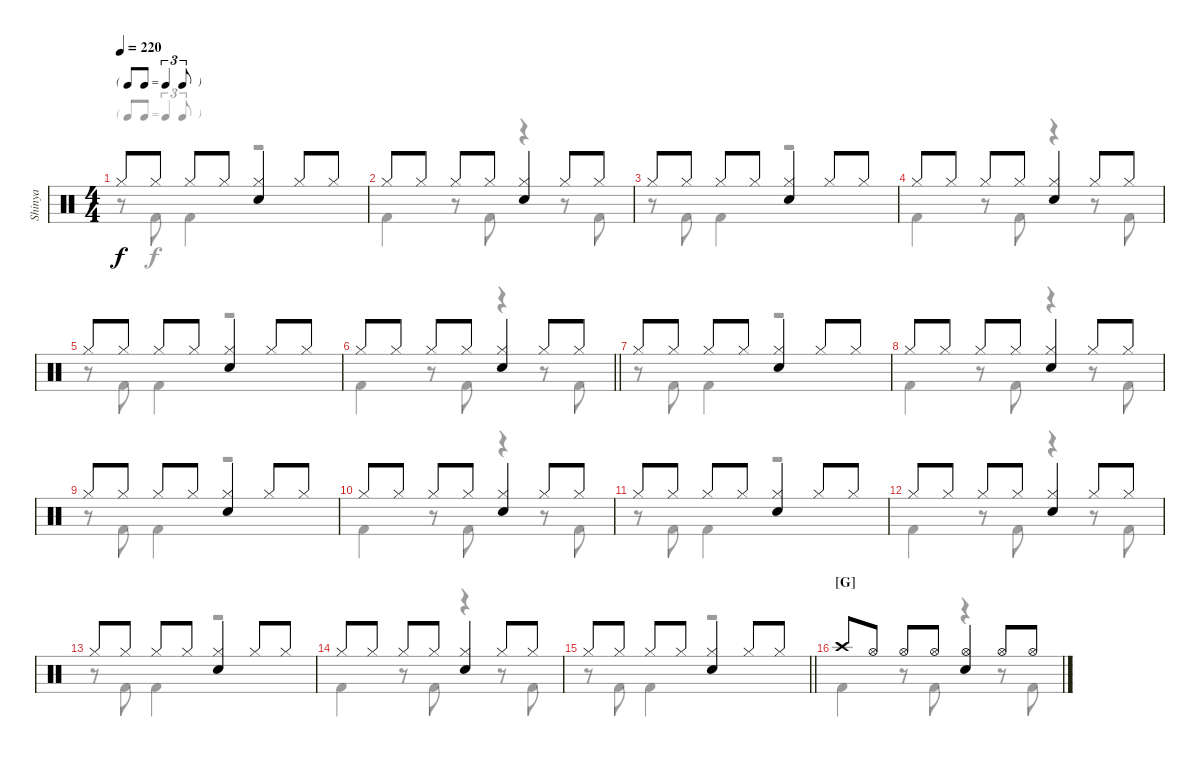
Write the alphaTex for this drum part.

\track ("Shinya" "Shinya") {instrument percussion}
\staff {score}
\articulation defaults
\voice
\ts (4 4)
\tf triplet8th
\tempo 220
\clef neutral
\ks c "Hi-Hat (closed)".8{dy f} "Hi-Hat (closed)".8 "Hi-Hat (closed)".8 "Hi-Hat (closed)".8
("Hi-Hat (closed)" "Snare (hit) 2").4 "Hi-Hat (closed)".8 "Hi-Hat (closed)".8 |
"Hi-Hat (closed)".8 "Hi-Hat (closed)".8 "Hi-Hat (closed)".8 "Hi-Hat (closed)".8 ("Hi-Hat (closed)" "Snare (hit) 2").4 "Hi-Hat (closed)".8 "Hi-Hat (closed)".8 |
"Hi-Hat (closed)".8 "Hi-Hat (closed)".8 "Hi-Hat (closed)".8 "Hi-Hat (closed)".8 ("Hi-Hat (closed)" "Snare (hit) 2").4 "Hi-Hat (closed)".8 "Hi-Hat (closed)".8 |
"Hi-Hat (closed)".8 "Hi-Hat (closed)".8 "Hi-Hat (closed)".8 "Hi-Hat (closed)".8 ("Hi-Hat (closed)" "Snare (hit) 2").4 "Hi-Hat (closed)".8 "Hi-Hat (closed)".8 |
"Hi-Hat (closed)".8 "Hi-Hat (closed)".8 "Hi-Hat (closed)".8 "Hi-Hat (closed)".8 ("Hi-Hat (closed)" "Snare (hit) 2").4 "Hi-Hat (closed)".8 "Hi-Hat (closed)".8 |
\barLineRight lightlight "Hi-Hat (closed)".8 "Hi-Hat (closed)".8 "Hi-Hat (closed)".8 "Hi-Hat (closed)".8
("Hi-Hat (closed)" "Snare (hit) 2").4 "Hi-Hat (closed)".8 "Hi-Hat (closed)".8 |
"Hi-Hat (closed)".8 "Hi-Hat (closed)".8 "Hi-Hat (closed)".8 "Hi-Hat (closed)".8 ("Hi-Hat (closed)" "Snare (hit) 2").4 "Hi-Hat (closed)".8 "Hi-Hat (closed)".8 |
"Hi-Hat (closed)".8 "Hi-Hat (closed)".8 "Hi-Hat (closed)".8 "Hi-Hat (closed)".8 ("Hi-Hat (closed)" "Snare (hit) 2").4 "Hi-Hat (closed)".8 "Hi-Hat (closed)".8 |
"Hi-Hat (closed)".8 "Hi-Hat (closed)".8 "Hi-Hat (closed)".8 "Hi-Hat (closed)".8 ("Hi-Hat (closed)" "Snare (hit) 2").4 "Hi-Hat (closed)".8 "Hi-Hat (closed)".8 |
"Hi-Hat (closed)".8 "Hi-Hat (closed)".8 "Hi-Hat (closed)".8 "Hi-Hat (closed)".8 ("Hi-Hat (closed)" "Snare (hit) 2").4 "Hi-Hat (closed)".8 "Hi-Hat (closed)".8 |
"Hi-Hat (closed)".8 "Hi-Hat (closed)".8 "Hi-Hat (closed)".8 "Hi-Hat (closed)".8 ("Hi-Hat (closed)" "Snare (hit) 2").4 "Hi-Hat (closed)".8 "Hi-Hat (closed)".8 |
"Hi-Hat (closed)".8 "Hi-Hat (closed)".8 "Hi-Hat (closed)".8 "Hi-Hat (closed)".8 ("Hi-Hat (closed)" "Snare (hit) 2").4 "Hi-Hat (closed)".8 "Hi-Hat (closed)".8 |
"Hi-Hat (closed)".8 "Hi-Hat (closed)".8 "Hi-Hat (closed)".8 "Hi-Hat (closed)".8 ("Hi-Hat (closed)" "Snare (hit) 2").4 "Hi-Hat (closed)".8 "Hi-Hat (closed)".8 |
"Hi-Hat (closed)".8 "Hi-Hat (closed)".8 "Hi-Hat (closed)".8 "Hi-Hat (closed)".8 ("Hi-Hat (closed)" "Snare (hit) 2").4 "Hi-Hat (closed)".8 "Hi-Hat (closed)".8 |
\barLineRight lightlight "Hi-Hat (closed)".8 "Hi-Hat (closed)".8 "Hi-Hat (closed)".8 "Hi-Hat (closed)".8
("Hi-Hat (closed)" "Snare (hit) 2").4 "Hi-Hat (closed)".8 "Hi-Hat (closed)".8 |
\section ("" "[G]")
"Crash high (hit)".8 "Hi-Hat (open)".8 "Hi-Hat (open)".8 "Hi-Hat (open)".8 ("Hi-Hat (open)" "Snare (hit) 2").4 "Hi-Hat (open)".8 "Hi-Hat (open)".8
\voice
\clef neutral
\ottava regular
\simile none
\ks c
r.8{dy f} "Kick (hit) 2".8 "Kick (hit) 2".4 r.2 |
"Kick (hit) 2".4 r.8 "Kick (hit) 2".8 r.4 r.8 "Kick (hit) 2".8 |
r.8 "Kick (hit) 2".8 "Kick (hit) 2".4 r.2 |
"Kick (hit) 2".4 r.8 "Kick (hit) 2".8 r.4 r.8 "Kick (hit) 2".8 |
r.8 "Kick (hit) 2".8 "Kick (hit) 2".4 r.2 |
\barLineRight lightlight "Kick (hit) 2".4
r.8 "Kick (hit) 2".8 r.4 r.8 "Kick (hit) 2".8 |
r.8 "Kick (hit) 2".8 "Kick (hit) 2".4 r.2 |
"Kick (hit) 2".4 r.8 "Kick (hit) 2".8 r.4 r.8 "Kick (hit) 2".8 |
r.8 "Kick (hit) 2".8 "Kick (hit) 2".4 r.2 |
"Kick (hit) 2".4 r.8 "Kick (hit) 2".8 r.4 r.8 "Kick (hit) 2".8 |
r.8 "Kick (hit) 2".8 "Kick (hit) 2".4 r.2 |
"Kick (hit) 2".4 r.8 "Kick (hit) 2".8 r.4 r.8 "Kick (hit) 2".8 |
r.8 "Kick (hit) 2".8 "Kick (hit) 2".4 r.2 |
"Kick (hit) 2".4 r.8 "Kick (hit) 2".8 r.4 r.8 "Kick (hit) 2".8 |
\barLineRight lightlight
r.8 "Kick (hit) 2".8 "Kick (hit) 2".4 r.2 |
"Kick (hit) 2".4 r.8 "Kick (hit) 2".8 r.4 r.8 "Kick (hit) 2".8
